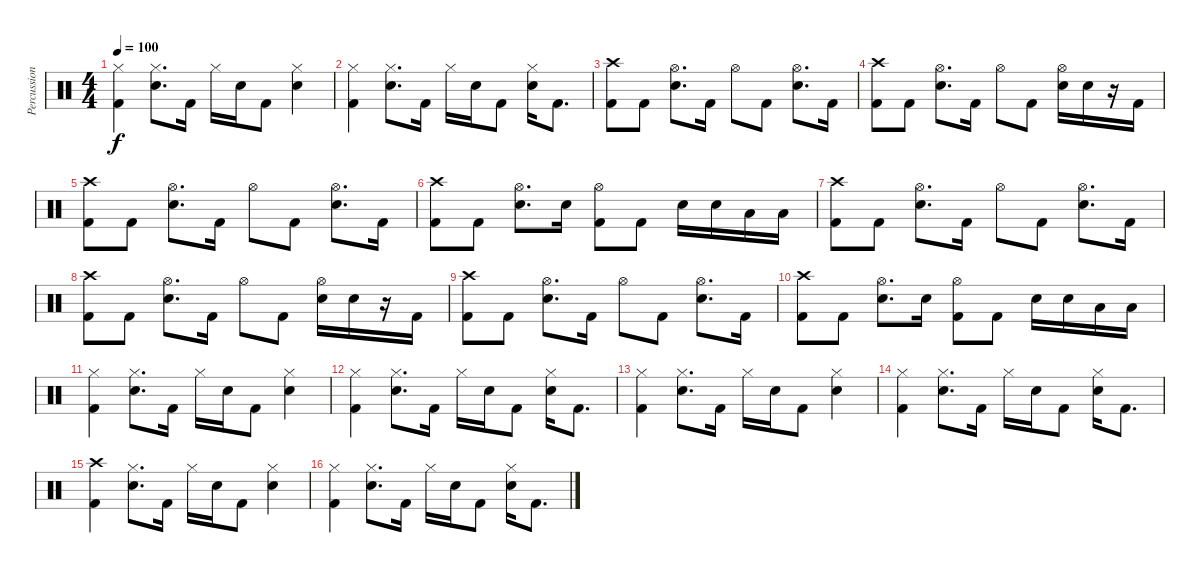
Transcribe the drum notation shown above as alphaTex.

\track ("Percussion" "Percussion") {instrument percussion}
\staff {score}
\articulation defaults
\ts (4 4)
\tempo 100
\clef neutral
\ks c
("Hi-Hat (closed)" "Kick (hit) 2").4{dy f} ("Hi-Hat (closed)" "Electric Snare (hit)").8{d} "Kick (hit) 2".16 "Hi-Hat (closed)".16 "Electric Snare (hit)".16 "Kick (hit) 2".8 ("Electric Snare (hit)" "Hi-Hat (closed)").4 |
("Hi-Hat (closed)" "Kick (hit) 2").4 ("Hi-Hat (closed)" "Electric Snare (hit)").8{d} "Kick (hit) 2".16 "Hi-Hat (closed)".16 "Electric Snare (hit)".16 "Kick (hit) 2".8 ("Hi-Hat (closed)" "Electric Snare (hit)").16 "Kick (hit) 2".8{d} |
("Kick (hit) 2" "Crash high (hit)").8 "Kick (hit) 2".8 ("Electric Snare (hit)" "Hi-Hat (open)").8{d} "Kick (hit) 2".16 "Hi-Hat (open)".8 "Kick (hit) 2".8 ("Hi-Hat (open)" "Electric Snare (hit)").8{d} "Kick (hit) 2".16 |
("Crash high (hit)" "Kick (hit) 2").8 "Kick (hit) 2".8 ("Hi-Hat (open)" "Electric Snare (hit)").8{d} "Kick (hit) 2".16 "Hi-Hat (open)".8 "Kick (hit) 2".8 ("Hi-Hat (open)" "Electric Snare (hit)").16 "Electric Snare (hit)".16 r.16 "Kick (hit) 2".16 |
("Kick (hit) 2" "Crash high (hit)").8 "Kick (hit) 2".8 ("Electric Snare (hit)" "Hi-Hat (open)").8{d} "Kick (hit) 2".16 "Hi-Hat (open)".8 "Kick (hit) 2".8 ("Hi-Hat (open)" "Electric Snare (hit)").8{d} "Kick (hit) 2".16 |
("Kick (hit) 2" "Crash high (hit)").8 "Kick (hit) 2".8 ("Hi-Hat (open)" "Electric Snare (hit)").8{d} "Electric Snare (hit)".16 ("Kick (hit) 2" "Hi-Hat (open)").8 "Kick (hit) 2".8 "Electric Snare (hit)".16 "Electric Snare (hit)".16 "Low Tom (hit)".16 "Low Tom (hit)".16 |
("Kick (hit) 2" "Crash high (hit)").8 "Kick (hit) 2".8 ("Electric Snare (hit)" "Hi-Hat (open)").8{d} "Kick (hit) 2".16 "Hi-Hat (open)".8 "Kick (hit) 2".8 ("Hi-Hat (open)" "Electric Snare (hit)").8{d} "Kick (hit) 2".16 |
("Crash high (hit)" "Kick (hit) 2").8 "Kick (hit) 2".8 ("Hi-Hat (open)" "Electric Snare (hit)").8{d} "Kick (hit) 2".16 "Hi-Hat (open)".8 "Kick (hit) 2".8 ("Hi-Hat (open)" "Electric Snare (hit)").16 "Electric Snare (hit)".16 r.16 "Kick (hit) 2".16 |
("Kick (hit) 2" "Crash high (hit)").8 "Kick (hit) 2".8 ("Electric Snare (hit)" "Hi-Hat (open)").8{d} "Kick (hit) 2".16 "Hi-Hat (open)".8 "Kick (hit) 2".8 ("Hi-Hat (open)" "Electric Snare (hit)").8{d} "Kick (hit) 2".16 |
("Kick (hit) 2" "Crash high (hit)").8 "Kick (hit) 2".8 ("Hi-Hat (open)" "Electric Snare (hit)").8{d} "Electric Snare (hit)".16 ("Kick (hit) 2" "Hi-Hat (open)").8 "Kick (hit) 2".8 "Electric Snare (hit)".16 "Electric Snare (hit)".16 "Low Tom (hit)".16 "Low Tom (hit)".16 |
("Hi-Hat (closed)" "Kick (hit) 2").4 ("Hi-Hat (closed)" "Electric Snare (hit)").8{d} "Kick (hit) 2".16 "Hi-Hat (closed)".16 "Electric Snare (hit)".16 "Kick (hit) 2".8 ("Electric Snare (hit)" "Hi-Hat (closed)").4 |
("Hi-Hat (closed)" "Kick (hit) 2").4 ("Hi-Hat (closed)" "Electric Snare (hit)").8{d} "Kick (hit) 2".16 "Hi-Hat (closed)".16 "Electric Snare (hit)".16 "Kick (hit) 2".8 ("Hi-Hat (closed)" "Electric Snare (hit)").16 "Kick (hit) 2".8{d} |
("Hi-Hat (closed)" "Kick (hit) 2").4 ("Hi-Hat (closed)" "Electric Snare (hit)").8{d} "Kick (hit) 2".16 "Hi-Hat (closed)".16 "Electric Snare (hit)".16 "Kick (hit) 2".8 ("Electric Snare (hit)" "Hi-Hat (closed)").4 |
("Hi-Hat (closed)" "Kick (hit) 2").4 ("Hi-Hat (closed)" "Electric Snare (hit)").8{d} "Kick (hit) 2".16 "Hi-Hat (closed)".16 "Electric Snare (hit)".16 "Kick (hit) 2".8 ("Hi-Hat (closed)" "Electric Snare (hit)").16 "Kick (hit) 2".8{d} |
("Crash high (hit)" "Kick (hit) 2").4 ("Hi-Hat (closed)" "Electric Snare (hit)").8{d} "Kick (hit) 2".16 "Hi-Hat (closed)".16 "Electric Snare (hit)".16 "Kick (hit) 2".8 ("Electric Snare (hit)" "Hi-Hat (closed)").4 |
("Hi-Hat (closed)" "Kick (hit) 2").4 ("Hi-Hat (closed)" "Electric Snare (hit)").8{d} "Kick (hit) 2".16 "Hi-Hat (closed)".16 "Electric Snare (hit)".16 "Kick (hit) 2".8 ("Hi-Hat (closed)" "Electric Snare (hit)").16 "Kick (hit) 2".8{d}
